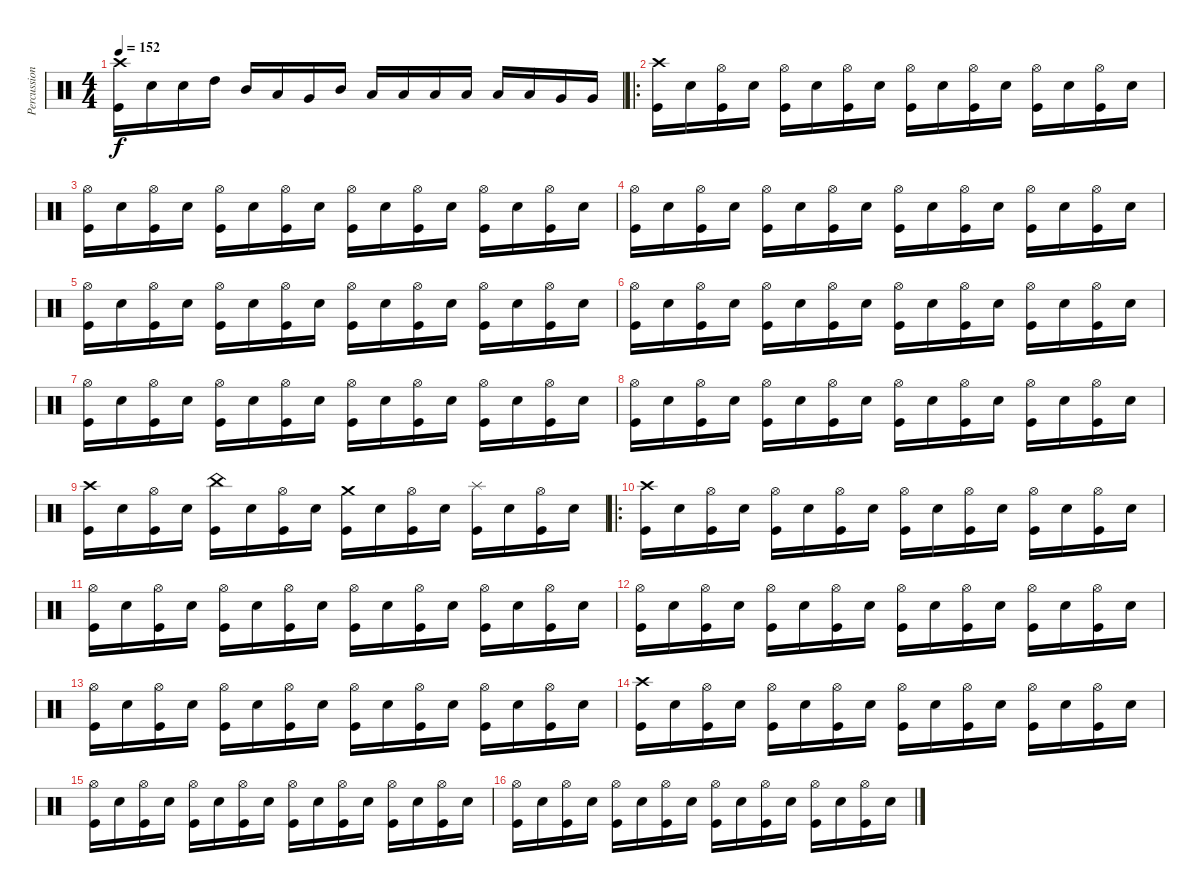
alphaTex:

\track ("Percussion" "Percussion") {instrument percussion}
\staff {score}
\articulation defaults
\ts (4 4)
\tempo 152
\clef neutral
\ks c
("Crash high (hit)" "Kick (hit)").16{dy f} "Snare (hit) 2".16 "Snare (hit) 2".16 "High Tom (hit)".16 "Mid Tom (hit)".16 "Low Tom (hit)".16 "Very Low Tom (hit)".16 "Mid Tom (hit)".16 "Low Tom (hit)".16 "Low Tom (hit)".16 "Low Tom (hit)".16 "Low Tom (hit)".16 "Low Tom (hit)".16 "Low Tom (hit)".16 "Very Low Tom (hit)".16 "Very Low Tom (hit)".16 |
\ro
("Crash high (hit)" "Kick (hit)").16 "Snare (hit) 2".16 ("Hi-Hat (open)" "Kick (hit)").16 "Snare (hit) 2".16 ("Hi-Hat (open)" "Kick (hit)").16 "Snare (hit) 2".16 ("Hi-Hat (open)" "Kick (hit)").16 "Snare (hit) 2".16 ("Hi-Hat (open)" "Kick (hit)").16 "Snare (hit) 2".16 ("Hi-Hat (open)" "Kick (hit)").16 "Snare (hit) 2".16 ("Hi-Hat (open)" "Kick (hit)").16 "Snare (hit) 2".16 ("Hi-Hat (open)" "Kick (hit)").16 "Snare (hit) 2".16 |
("Hi-Hat (open)" "Kick (hit)").16 "Snare (hit) 2".16 ("Hi-Hat (open)" "Kick (hit)").16 "Snare (hit) 2".16 ("Hi-Hat (open)" "Kick (hit)").16 "Snare (hit) 2".16 ("Hi-Hat (open)" "Kick (hit)").16 "Snare (hit) 2".16 ("Hi-Hat (open)" "Kick (hit)").16 "Snare (hit) 2".16 ("Hi-Hat (open)" "Kick (hit)").16 "Snare (hit) 2".16 ("Hi-Hat (open)" "Kick (hit)").16 "Snare (hit) 2".16 ("Hi-Hat (open)" "Kick (hit)").16 "Snare (hit) 2".16 |
("Hi-Hat (open)" "Kick (hit)").16 "Snare (hit) 2".16 ("Hi-Hat (open)" "Kick (hit)").16 "Snare (hit) 2".16 ("Hi-Hat (open)" "Kick (hit)").16 "Snare (hit) 2".16 ("Hi-Hat (open)" "Kick (hit)").16 "Snare (hit) 2".16 ("Hi-Hat (open)" "Kick (hit)").16 "Snare (hit) 2".16 ("Hi-Hat (open)" "Kick (hit)").16 "Snare (hit) 2".16 ("Hi-Hat (open)" "Kick (hit)").16 "Snare (hit) 2".16 ("Hi-Hat (open)" "Kick (hit)").16 "Snare (hit) 2".16 |
("Hi-Hat (open)" "Kick (hit)").16 "Snare (hit) 2".16 ("Hi-Hat (open)" "Kick (hit)").16 "Snare (hit) 2".16 ("Hi-Hat (open)" "Kick (hit)").16 "Snare (hit) 2".16 ("Hi-Hat (open)" "Kick (hit)").16 "Snare (hit) 2".16 ("Hi-Hat (open)" "Kick (hit)").16 "Snare (hit) 2".16 ("Hi-Hat (open)" "Kick (hit)").16 "Snare (hit) 2".16 ("Hi-Hat (open)" "Kick (hit)").16 "Snare (hit) 2".16 ("Hi-Hat (open)" "Kick (hit)").16 "Snare (hit) 2".16 |
("Hi-Hat (open)" "Kick (hit)").16 "Snare (hit) 2".16 ("Hi-Hat (open)" "Kick (hit)").16 "Snare (hit) 2".16 ("Hi-Hat (open)" "Kick (hit)").16 "Snare (hit) 2".16 ("Hi-Hat (open)" "Kick (hit)").16 "Snare (hit) 2".16 ("Hi-Hat (open)" "Kick (hit)").16 "Snare (hit) 2".16 ("Hi-Hat (open)" "Kick (hit)").16 "Snare (hit) 2".16 ("Hi-Hat (open)" "Kick (hit)").16 "Snare (hit) 2".16 ("Hi-Hat (open)" "Kick (hit)").16 "Snare (hit) 2".16 |
("Hi-Hat (open)" "Kick (hit)").16 "Snare (hit) 2".16 ("Hi-Hat (open)" "Kick (hit)").16 "Snare (hit) 2".16 ("Hi-Hat (open)" "Kick (hit)").16 "Snare (hit) 2".16 ("Hi-Hat (open)" "Kick (hit)").16 "Snare (hit) 2".16 ("Hi-Hat (open)" "Kick (hit)").16 "Snare (hit) 2".16 ("Hi-Hat (open)" "Kick (hit)").16 "Snare (hit) 2".16 ("Hi-Hat (open)" "Kick (hit)").16 "Snare (hit) 2".16 ("Hi-Hat (open)" "Kick (hit)").16 "Snare (hit) 2".16 |
("Hi-Hat (open)" "Kick (hit)").16 "Snare (hit) 2".16 ("Hi-Hat (open)" "Kick (hit)").16 "Snare (hit) 2".16 ("Hi-Hat (open)" "Kick (hit)").16 "Snare (hit) 2".16 ("Hi-Hat (open)" "Kick (hit)").16 "Snare (hit) 2".16 ("Hi-Hat (open)" "Kick (hit)").16 "Snare (hit) 2".16 ("Hi-Hat (open)" "Kick (hit)").16 "Snare (hit) 2".16 ("Hi-Hat (open)" "Kick (hit)").16 "Snare (hit) 2".16 ("Hi-Hat (open)" "Kick (hit)").16 "Snare (hit) 2".16 |
("Crash high (hit)" "Kick (hit)").16 "Snare (hit) 2".16 ("Hi-Hat (open)" "Kick (hit)").16 "Snare (hit) 2".16 ("China (hit)" "Kick (hit)").16 "Snare (hit) 2".16 ("Hi-Hat (open)" "Kick (hit)").16 "Snare (hit) 2".16 ("Crash medium (hit)" "Kick (hit)").16 "Snare (hit) 2".16 ("Hi-Hat (open)" "Kick (hit)").16 "Snare (hit) 2".16 ("Splash (hit)" "Kick (hit)").16 "Snare (hit) 2".16 ("Hi-Hat (open)" "Kick (hit)").16 "Snare (hit) 2".16 |
\ro
("Crash high (hit)" "Kick (hit)").16 "Snare (hit) 2".16 ("Hi-Hat (open)" "Kick (hit)").16 "Snare (hit) 2".16 ("Hi-Hat (open)" "Kick (hit)").16 "Snare (hit) 2".16 ("Hi-Hat (open)" "Kick (hit)").16 "Snare (hit) 2".16 ("Hi-Hat (open)" "Kick (hit)").16 "Snare (hit) 2".16 ("Hi-Hat (open)" "Kick (hit)").16 "Snare (hit) 2".16 ("Hi-Hat (open)" "Kick (hit)").16 "Snare (hit) 2".16 ("Hi-Hat (open)" "Kick (hit)").16 "Snare (hit) 2".16 |
("Hi-Hat (open)" "Kick (hit)").16 "Snare (hit) 2".16 ("Hi-Hat (open)" "Kick (hit)").16 "Snare (hit) 2".16 ("Hi-Hat (open)" "Kick (hit)").16 "Snare (hit) 2".16 ("Hi-Hat (open)" "Kick (hit)").16 "Snare (hit) 2".16 ("Hi-Hat (open)" "Kick (hit)").16 "Snare (hit) 2".16 ("Hi-Hat (open)" "Kick (hit)").16 "Snare (hit) 2".16 ("Hi-Hat (open)" "Kick (hit)").16 "Snare (hit) 2".16 ("Hi-Hat (open)" "Kick (hit)").16 "Snare (hit) 2".16 |
("Hi-Hat (open)" "Kick (hit)").16 "Snare (hit) 2".16 ("Hi-Hat (open)" "Kick (hit)").16 "Snare (hit) 2".16 ("Hi-Hat (open)" "Kick (hit)").16 "Snare (hit) 2".16 ("Hi-Hat (open)" "Kick (hit)").16 "Snare (hit) 2".16 ("Hi-Hat (open)" "Kick (hit)").16 "Snare (hit) 2".16 ("Hi-Hat (open)" "Kick (hit)").16 "Snare (hit) 2".16 ("Hi-Hat (open)" "Kick (hit)").16 "Snare (hit) 2".16 ("Hi-Hat (open)" "Kick (hit)").16 "Snare (hit) 2".16 |
("Hi-Hat (open)" "Kick (hit)").16 "Snare (hit) 2".16 ("Hi-Hat (open)" "Kick (hit)").16 "Snare (hit) 2".16 ("Hi-Hat (open)" "Kick (hit)").16 "Snare (hit) 2".16 ("Hi-Hat (open)" "Kick (hit)").16 "Snare (hit) 2".16 ("Hi-Hat (open)" "Kick (hit)").16 "Snare (hit) 2".16 ("Hi-Hat (open)" "Kick (hit)").16 "Snare (hit) 2".16 ("Hi-Hat (open)" "Kick (hit)").16 "Snare (hit) 2".16 ("Hi-Hat (open)" "Kick (hit)").16 "Snare (hit) 2".16 |
("Crash high (hit)" "Kick (hit)").16 "Snare (hit) 2".16 ("Hi-Hat (open)" "Kick (hit)").16 "Snare (hit) 2".16 ("Hi-Hat (open)" "Kick (hit)").16 "Snare (hit) 2".16 ("Hi-Hat (open)" "Kick (hit)").16 "Snare (hit) 2".16 ("Hi-Hat (open)" "Kick (hit)").16 "Snare (hit) 2".16 ("Hi-Hat (open)" "Kick (hit)").16 "Snare (hit) 2".16 ("Hi-Hat (open)" "Kick (hit)").16 "Snare (hit) 2".16 ("Hi-Hat (open)" "Kick (hit)").16 "Snare (hit) 2".16 |
("Hi-Hat (open)" "Kick (hit)").16 "Snare (hit) 2".16 ("Hi-Hat (open)" "Kick (hit)").16 "Snare (hit) 2".16 ("Hi-Hat (open)" "Kick (hit)").16 "Snare (hit) 2".16 ("Hi-Hat (open)" "Kick (hit)").16 "Snare (hit) 2".16 ("Hi-Hat (open)" "Kick (hit)").16 "Snare (hit) 2".16 ("Hi-Hat (open)" "Kick (hit)").16 "Snare (hit) 2".16 ("Hi-Hat (open)" "Kick (hit)").16 "Snare (hit) 2".16 ("Hi-Hat (open)" "Kick (hit)").16 "Snare (hit) 2".16 |
("Hi-Hat (open)" "Kick (hit)").16 "Snare (hit) 2".16 ("Hi-Hat (open)" "Kick (hit)").16 "Snare (hit) 2".16 ("Hi-Hat (open)" "Kick (hit)").16 "Snare (hit) 2".16 ("Hi-Hat (open)" "Kick (hit)").16 "Snare (hit) 2".16 ("Hi-Hat (open)" "Kick (hit)").16 "Snare (hit) 2".16 ("Hi-Hat (open)" "Kick (hit)").16 "Snare (hit) 2".16 ("Hi-Hat (open)" "Kick (hit)").16 "Snare (hit) 2".16 ("Hi-Hat (open)" "Kick (hit)").16 "Snare (hit) 2".16
